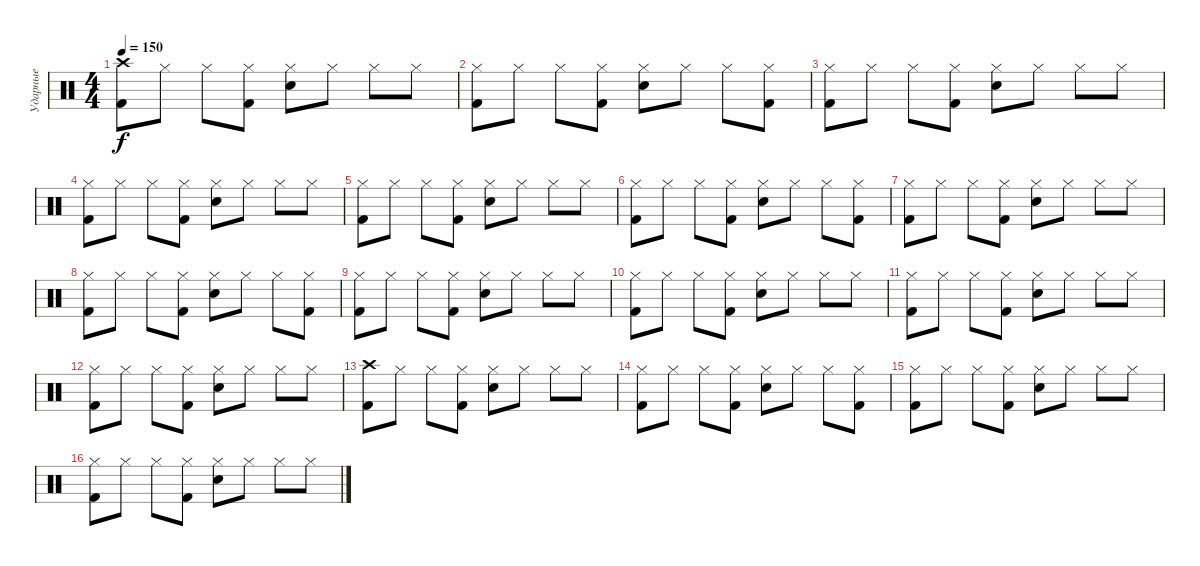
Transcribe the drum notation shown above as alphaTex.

\track ("Ударные" "Ударные") {instrument percussion}
\staff {score}
\articulation defaults
\ts (4 4)
\tempo 150
\clef neutral
\ks c
("Crash high (hit)" "Kick (hit) 2").8{dy f} "Hi-Hat (closed)".8 "Hi-Hat (closed)".8 ("Hi-Hat (closed)" "Kick (hit) 2").8 ("Hi-Hat (closed)" "Electric Snare (hit)").8 "Hi-Hat (closed)".8 "Hi-Hat (closed)".8 "Hi-Hat (closed)".8 |
("Hi-Hat (closed)" "Kick (hit) 2").8 "Hi-Hat (closed)".8 "Hi-Hat (closed)".8 ("Hi-Hat (closed)" "Kick (hit) 2").8 ("Hi-Hat (closed)" "Electric Snare (hit)").8 "Hi-Hat (closed)".8 "Hi-Hat (closed)".8 ("Hi-Hat (closed)" "Kick (hit) 2").8 |
("Hi-Hat (closed)" "Kick (hit) 2").8 "Hi-Hat (closed)".8 "Hi-Hat (closed)".8 ("Hi-Hat (closed)" "Kick (hit) 2").8 ("Hi-Hat (closed)" "Electric Snare (hit)").8 "Hi-Hat (closed)".8 "Hi-Hat (closed)".8 "Hi-Hat (closed)".8 |
("Hi-Hat (closed)" "Kick (hit) 2").8 "Hi-Hat (closed)".8 "Hi-Hat (closed)".8 ("Hi-Hat (closed)" "Kick (hit) 2").8 ("Hi-Hat (closed)" "Electric Snare (hit)").8 "Hi-Hat (closed)".8 "Hi-Hat (closed)".8 "Hi-Hat (closed)".8 |
("Hi-Hat (closed)" "Kick (hit) 2").8 "Hi-Hat (closed)".8 "Hi-Hat (closed)".8 ("Hi-Hat (closed)" "Kick (hit) 2").8 ("Hi-Hat (closed)" "Electric Snare (hit)").8 "Hi-Hat (closed)".8 "Hi-Hat (closed)".8 "Hi-Hat (closed)".8 |
("Hi-Hat (closed)" "Kick (hit) 2").8 "Hi-Hat (closed)".8 "Hi-Hat (closed)".8 ("Hi-Hat (closed)" "Kick (hit) 2").8 ("Hi-Hat (closed)" "Electric Snare (hit)").8 "Hi-Hat (closed)".8 "Hi-Hat (closed)".8 ("Hi-Hat (closed)" "Kick (hit) 2").8 |
("Hi-Hat (closed)" "Kick (hit) 2").8 "Hi-Hat (closed)".8 "Hi-Hat (closed)".8 ("Hi-Hat (closed)" "Kick (hit) 2").8 ("Hi-Hat (closed)" "Electric Snare (hit)").8 "Hi-Hat (closed)".8 "Hi-Hat (closed)".8 "Hi-Hat (closed)".8 |
("Hi-Hat (closed)" "Kick (hit) 2").8 "Hi-Hat (closed)".8 "Hi-Hat (closed)".8 ("Hi-Hat (closed)" "Kick (hit) 2").8 ("Hi-Hat (closed)" "Electric Snare (hit)").8 "Hi-Hat (closed)".8 "Hi-Hat (closed)".8 ("Hi-Hat (closed)" "Kick (hit) 2").8 |
("Hi-Hat (closed)" "Kick (hit) 2").8 "Hi-Hat (closed)".8 "Hi-Hat (closed)".8 ("Hi-Hat (closed)" "Kick (hit) 2").8 ("Hi-Hat (closed)" "Electric Snare (hit)").8 "Hi-Hat (closed)".8 "Hi-Hat (closed)".8 "Hi-Hat (closed)".8 |
("Hi-Hat (closed)" "Kick (hit) 2").8 "Hi-Hat (closed)".8 "Hi-Hat (closed)".8 ("Hi-Hat (closed)" "Kick (hit) 2").8 ("Hi-Hat (closed)" "Electric Snare (hit)").8 "Hi-Hat (closed)".8 "Hi-Hat (closed)".8 "Hi-Hat (closed)".8 |
("Hi-Hat (closed)" "Kick (hit) 2").8 "Hi-Hat (closed)".8 "Hi-Hat (closed)".8 ("Hi-Hat (closed)" "Kick (hit) 2").8 ("Hi-Hat (closed)" "Electric Snare (hit)").8 "Hi-Hat (closed)".8 "Hi-Hat (closed)".8 "Hi-Hat (closed)".8 |
("Hi-Hat (closed)" "Kick (hit) 2").8 "Hi-Hat (closed)".8 "Hi-Hat (closed)".8 ("Hi-Hat (closed)" "Kick (hit) 2").8 ("Hi-Hat (closed)" "Electric Snare (hit)").8 "Hi-Hat (closed)".8 "Hi-Hat (closed)".8 "Hi-Hat (closed)".8 |
("Crash high (hit)" "Kick (hit) 2").8 "Hi-Hat (closed)".8 "Hi-Hat (closed)".8 ("Hi-Hat (closed)" "Kick (hit) 2").8 ("Hi-Hat (closed)" "Electric Snare (hit)").8 "Hi-Hat (closed)".8 "Hi-Hat (closed)".8 "Hi-Hat (closed)".8 |
("Hi-Hat (closed)" "Kick (hit) 2").8 "Hi-Hat (closed)".8 "Hi-Hat (closed)".8 ("Hi-Hat (closed)" "Kick (hit) 2").8 ("Hi-Hat (closed)" "Electric Snare (hit)").8 "Hi-Hat (closed)".8 "Hi-Hat (closed)".8 ("Hi-Hat (closed)" "Kick (hit) 2").8 |
("Hi-Hat (closed)" "Kick (hit) 2").8 "Hi-Hat (closed)".8 "Hi-Hat (closed)".8 ("Hi-Hat (closed)" "Kick (hit) 2").8 ("Hi-Hat (closed)" "Electric Snare (hit)").8 "Hi-Hat (closed)".8 "Hi-Hat (closed)".8 "Hi-Hat (closed)".8 |
("Hi-Hat (closed)" "Kick (hit) 2").8 "Hi-Hat (closed)".8 "Hi-Hat (closed)".8 ("Hi-Hat (closed)" "Kick (hit) 2").8 ("Hi-Hat (closed)" "Electric Snare (hit)").8 "Hi-Hat (closed)".8 "Hi-Hat (closed)".8 "Hi-Hat (closed)".8
